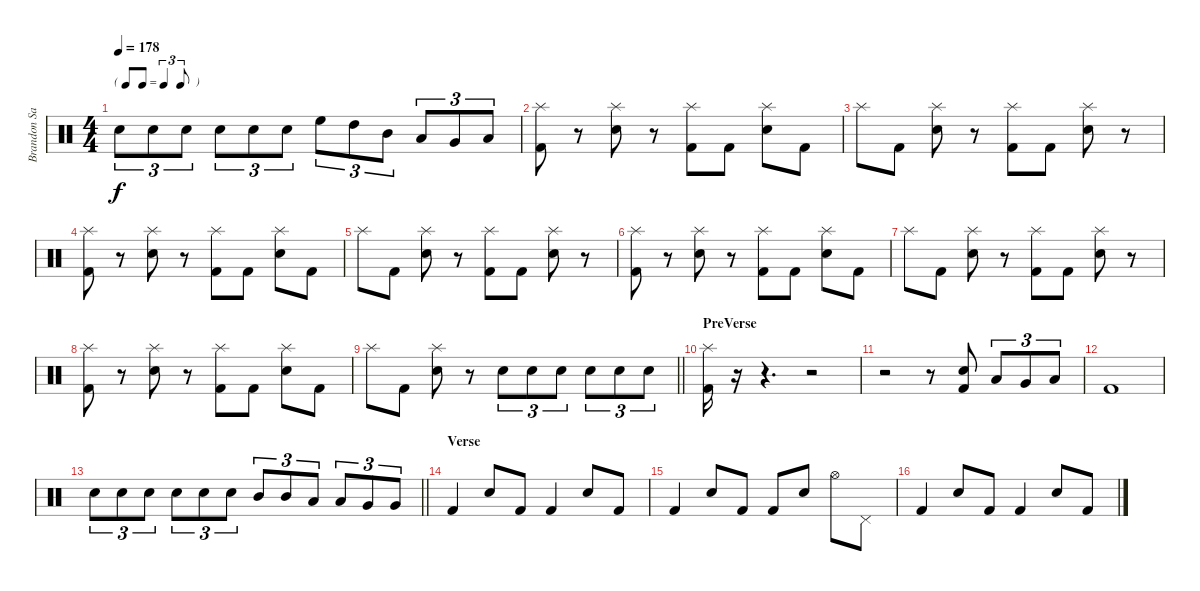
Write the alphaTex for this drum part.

\track ("Brandon Saller" "Brandon Sa") {instrument percussion}
\staff {score}
\articulation defaults
\ts (4 4)
\tf triplet8th
\tempo 178
\clef neutral
\ks c "Electric Snare (hit)".8{tu (3 2) dy f} "Electric Snare (hit)".8{tu (3 2)} "Electric Snare (hit)".8{tu (3 2)} "Electric Snare (hit)".8{tu (3 2)} "Electric Snare (hit)".8{tu (3 2)} "Electric Snare (hit)".8{tu (3 2)} "High Floor Tom (hit)".8{tu (3 2)} "High Tom (hit)".8{tu (3 2)} "Mid Tom (hit)".8{tu (3 2)} "Low Tom (hit)".8{tu (3 2)} "Very Low Tom (hit)".8{tu (3 2)} "Low Floor Tom (hit)".8{tu (3 2)}
|
("Splash (hit)" "Kick (hit) 2").8 r.8 ("Splash (hit)" "Electric Snare (hit)").8 r.8 ("Splash (hit)" "Kick (hit) 2").8 "Kick (hit) 2".8 ("Splash (hit)" "Electric Snare (hit)").8 "Kick (hit) 2".8 |
"Splash (hit)".8 "Kick (hit) 2".8 ("Splash (hit)" "Electric Snare (hit)").8 r.8 ("Splash (hit)" "Kick (hit) 2").8 "Kick (hit) 2".8 ("Splash (hit)" "Electric Snare (hit)").8 r.8 |
("Splash (hit)" "Kick (hit) 2").8 r.8 ("Splash (hit)" "Electric Snare (hit)").8 r.8 ("Splash (hit)" "Kick (hit) 2").8 "Kick (hit) 2".8 ("Splash (hit)" "Electric Snare (hit)").8 "Kick (hit) 2".8 |
"Splash (hit)".8 "Kick (hit) 2".8 ("Splash (hit)" "Electric Snare (hit)").8 r.8 ("Splash (hit)" "Kick (hit) 2").8 "Kick (hit) 2".8 ("Splash (hit)" "Electric Snare (hit)").8 r.8 |
("Splash (hit)" "Kick (hit) 2").8 r.8 ("Splash (hit)" "Electric Snare (hit)").8 r.8 ("Splash (hit)" "Kick (hit) 2").8 "Kick (hit) 2".8 ("Splash (hit)" "Electric Snare (hit)").8 "Kick (hit) 2".8 |
"Splash (hit)".8 "Kick (hit) 2".8 ("Splash (hit)" "Electric Snare (hit)").8 r.8 ("Splash (hit)" "Kick (hit) 2").8 "Kick (hit) 2".8 ("Splash (hit)" "Electric Snare (hit)").8 r.8 |
("Splash (hit)" "Kick (hit) 2").8 r.8 ("Splash (hit)" "Electric Snare (hit)").8 r.8 ("Splash (hit)" "Kick (hit) 2").8 "Kick (hit) 2".8 ("Splash (hit)" "Electric Snare (hit)").8 "Kick (hit) 2".8 |
\barLineRight lightlight "Splash (hit)".8 "Kick (hit) 2".8
("Splash (hit)" "Electric Snare (hit)").8 r.8 "Electric Snare (hit)".8{tu (3 2)} "Electric Snare (hit)".8{tu (3 2)} "Electric Snare (hit)".8{tu (3 2)} "Electric Snare (hit)".8{tu (3 2)} "Electric Snare (hit)".8{tu (3 2)} "Electric Snare (hit)".8{tu (3 2)} |
\section ("" "PreVerse")
("Splash (hit)" "Kick (hit) 2").16 r.16 r.4{d} r.2 |
r.2 r.8 ("Electric Snare (hit)" "Kick (hit) 2").8 "Low Tom (hit)".8{tu (3 2)} "Very Low Tom (hit)".8{tu (3 2)} "Low Floor Tom (hit)".8{tu (3 2)} |
"Kick (hit) 2".1 |
\barLineRight lightlight "Electric Snare (hit)".8{tu (3 2)} "Electric Snare (hit)".8{tu (3 2)} "Electric Snare (hit)".8{tu (3 2)} "Electric Snare (hit)".8{tu (3 2)} "Electric Snare (hit)".8{tu (3 2)} "Electric Snare (hit)".8{tu (3 2)} "Mid Tom (hit)".8{tu (3 2)} "Mid Tom (hit)".8{tu (3 2)} "Low Tom (hit)".8{tu (3 2)} "Low Tom (hit)".8{tu (3 2)} "Very Low Tom (hit)".8{tu (3 2)} "Very Low Tom (hit)".8{tu (3 2)}
|
\section ("" "Verse")
"Kick (hit) 2".4 "Electric Snare (hit)".8 "Kick (hit) 2".8 "Kick (hit) 2".4 "Electric Snare (hit)".8 "Kick (hit) 2".8 |
"Kick (hit) 2".4 "Electric Snare (hit)".8 "Kick (hit) 2".8 "Kick (hit) 2".8 "Electric Snare (hit)".8 "Hi-Hat (open)".8 "Pedal Hi-Hat (hit)".8 |
"Kick (hit) 2".4 "Electric Snare (hit)".8 "Kick (hit) 2".8 "Kick (hit) 2".4 "Electric Snare (hit)".8 "Kick (hit) 2".8
